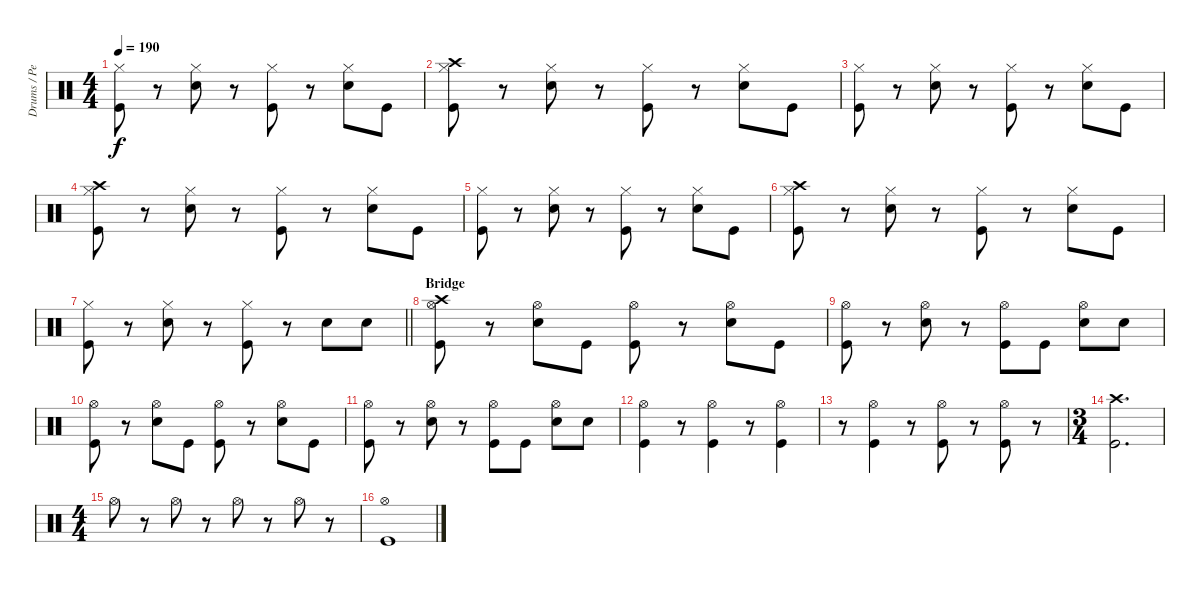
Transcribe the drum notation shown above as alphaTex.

\track ("Drums / Percussion" "Drums / Pe") {instrument percussion}
\staff {score}
\articulation defaults
\ts (4 4)
\tempo 190
\clef neutral
\ks c
("Hi-Hat (closed)" "Kick (hit)").8{dy f} r.8 ("Hi-Hat (closed)" "Electric Snare (hit)").8 r.8 ("Hi-Hat (closed)" "Kick (hit)").8 r.8 ("Hi-Hat (closed)" "Electric Snare (hit)").8 "Kick (hit)".8 |
("Hi-Hat (closed)" "Crash high (hit)" "Kick (hit)").8 r.8 ("Hi-Hat (closed)" "Electric Snare (hit)").8 r.8 ("Hi-Hat (closed)" "Kick (hit)").8 r.8 ("Hi-Hat (closed)" "Electric Snare (hit)").8 "Kick (hit)".8 |
("Hi-Hat (closed)" "Kick (hit)").8 r.8 ("Hi-Hat (closed)" "Electric Snare (hit)").8 r.8 ("Hi-Hat (closed)" "Kick (hit)").8 r.8 ("Hi-Hat (closed)" "Electric Snare (hit)").8 "Kick (hit)".8 |
("Hi-Hat (closed)" "Crash high (hit)" "Kick (hit)").8 r.8 ("Hi-Hat (closed)" "Electric Snare (hit)").8 r.8 ("Hi-Hat (closed)" "Kick (hit)").8 r.8 ("Hi-Hat (closed)" "Electric Snare (hit)").8 "Kick (hit)".8 |
("Hi-Hat (closed)" "Kick (hit)").8 r.8 ("Hi-Hat (closed)" "Electric Snare (hit)").8 r.8 ("Hi-Hat (closed)" "Kick (hit)").8 r.8 ("Hi-Hat (closed)" "Electric Snare (hit)").8 "Kick (hit)".8 |
("Hi-Hat (closed)" "Crash high (hit)" "Kick (hit)").8 r.8 ("Hi-Hat (closed)" "Electric Snare (hit)").8 r.8 ("Hi-Hat (closed)" "Kick (hit)").8 r.8 ("Hi-Hat (closed)" "Electric Snare (hit)").8 "Kick (hit)".8 |
\barLineRight lightlight
("Hi-Hat (closed)" "Kick (hit)").8 r.8 ("Hi-Hat (closed)" "Electric Snare (hit)").8 r.8 ("Hi-Hat (closed)" "Kick (hit)").8 r.8 "Electric Snare (hit)".8 "Electric Snare (hit)".8 |
\section ("" "Bridge")
("Hi-Hat (open)" "Crash high (hit)" "Kick (hit)").8 r.8 ("Hi-Hat (open)" "Electric Snare (hit)").8 "Kick (hit)".8 ("Hi-Hat (open)" "Kick (hit)").8 r.8 ("Hi-Hat (open)" "Electric Snare (hit)").8 "Kick (hit)".8 |
("Hi-Hat (open)" "Kick (hit)").8 r.8 ("Hi-Hat (open)" "Electric Snare (hit)").8 r.8 ("Hi-Hat (open)" "Kick (hit)").8 "Kick (hit)".8 ("Hi-Hat (open)" "Electric Snare (hit)").8 "Electric Snare (hit)".8 |
("Hi-Hat (open)" "Kick (hit)").8 r.8 ("Hi-Hat (open)" "Electric Snare (hit)").8 "Kick (hit)".8 ("Hi-Hat (open)" "Kick (hit)").8 r.8 ("Hi-Hat (open)" "Electric Snare (hit)").8 "Kick (hit)".8 |
("Hi-Hat (open)" "Kick (hit)").8 r.8 ("Hi-Hat (open)" "Electric Snare (hit)").8 r.8 ("Hi-Hat (open)" "Kick (hit)").8 "Kick (hit)".8 ("Hi-Hat (open)" "Electric Snare (hit)").8 "Electric Snare (hit)".8 |
("Hi-Hat (open)" "Kick (hit)").4 r.8 ("Hi-Hat (open)" "Kick (hit)").4 r.8 ("Hi-Hat (open)" "Kick (hit)").4 |
r.8 ("Hi-Hat (open)" "Kick (hit)").4 r.8 ("Hi-Hat (open)" "Kick (hit)").8 r.8 ("Hi-Hat (open)" "Kick (hit)").8 r.8 |
\ts (3 4)
("Crash high (hit)" "Kick (hit)").2{d} |
\ts (4 4)
"Hi-Hat (open)".8 r.8 "Hi-Hat (open)".8 r.8 "Hi-Hat (open)".8 r.8 "Hi-Hat (open)".8 r.8 |
("Hi-Hat (open)" "Kick (hit)").1
